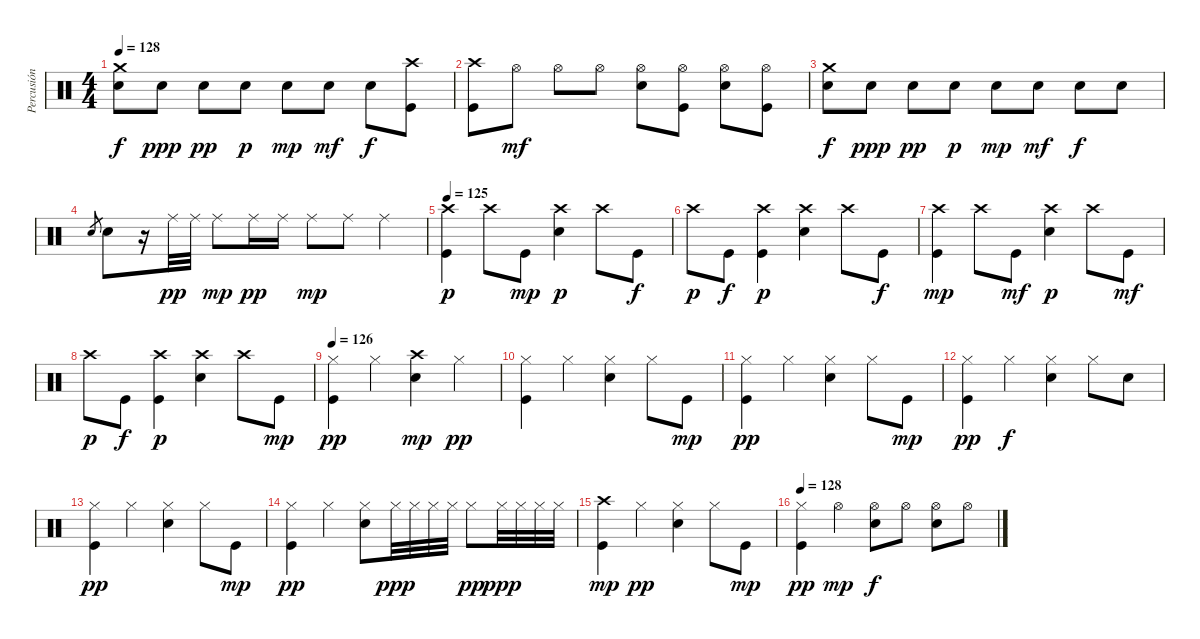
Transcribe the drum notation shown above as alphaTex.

\track ("Percusión" "Percusión") {instrument percussion}
\staff {score}
\articulation defaults
\ts (4 4)
\tempo 128
\clef neutral
\ks c
("Snare (hit) 2" "Crash medium (hit)").8{dy f} "Snare (hit) 2".8{dy ppp} "Snare (hit) 2".8{dy pp} "Snare (hit) 2".8{dy p} "Snare (hit) 2".8{dy mp} "Snare (hit) 2".8{dy mf} "Snare (hit) 2".8{dy f} ("Kick (hit)" "Crash high (hit)").8 |
("Kick (hit)" "Crash high (hit)").8 "Hi-Hat (open)".8{dy mf} "Hi-Hat (open)".8 "Hi-Hat (open)".8 ("Snare (hit) 2" "Hi-Hat (open)").8 ("Kick (hit)" "Hi-Hat (open)").8 ("Snare (hit) 2" "Hi-Hat (open)").8 ("Kick (hit)" "Hi-Hat (open)").8 |
("Snare (hit) 2" "Crash medium (hit)").8{dy f} "Snare (hit) 2".8{dy ppp} "Snare (hit) 2".8{dy pp} "Snare (hit) 2".8{dy p} "Snare (hit) 2".8{dy mp} "Snare (hit) 2".8{dy mf} "Snare (hit) 2".8{dy f} "Snare (hit) 2".8 |
"Snare (hit) 2".8{gr} "Snare (hit) 2".8 r.16 "Ride (middle)".32{dy pp} "Ride (middle)".32 "Ride (middle)".8{dy mp} "Ride (middle)".16{dy pp} "Ride (middle)".16 "Ride (middle)".8{dy mp} "Ride (middle)".8 "Ride (middle)".4 |
\tempo 125
("Kick (hit)" "Crash high (hit)").4{dy p} "Crash high (hit)".8 "Kick (hit)".8{dy mp} ("Snare (hit) 2" "Crash high (hit)").4{dy p} "Crash high (hit)".8 "Kick (hit)".8{dy f} |
"Crash high (hit)".8{dy p} "Kick (hit)".8{dy f} ("Kick (hit)" "Crash high (hit)").4{dy p} ("Snare (hit) 2" "Crash high (hit)").4 "Crash high (hit)".8 "Kick (hit)".8{dy f} |
("Kick (hit)" "Crash high (hit)").4{dy mp} "Crash high (hit)".8 "Kick (hit)".8{dy mf} ("Snare (hit) 2" "Crash high (hit)").4{dy p} "Crash high (hit)".8 "Kick (hit)".8{dy mf} |
"Crash high (hit)".8{dy p} "Kick (hit)".8{dy f} ("Kick (hit)" "Crash high (hit)").4{dy p} ("Snare (hit) 2" "Crash high (hit)").4 "Crash high (hit)".8 "Kick (hit)".8{dy mp} |
\tempo 126
("Kick (hit)" "Hi-Hat (closed)").4{dy pp} "Hi-Hat (closed)".4 ("Snare (hit) 2" "Crash high (hit)").4{dy mp} "Hi-Hat (closed)".4{dy pp} |
("Kick (hit)" "Hi-Hat (closed)").4 "Hi-Hat (closed)".4 ("Snare (hit) 2" "Hi-Hat (closed)").4 "Hi-Hat (closed)".8 "Kick (hit)".8{dy mp} |
("Kick (hit)" "Hi-Hat (closed)").4{dy pp} "Hi-Hat (closed)".4 ("Snare (hit) 2" "Hi-Hat (closed)").4 "Hi-Hat (closed)".8 "Kick (hit)".8{dy mp} |
("Kick (hit)" "Hi-Hat (closed)").4{dy pp} "Hi-Hat (closed)".4{dy f} ("Snare (hit) 2" "Hi-Hat (closed)").4 "Hi-Hat (closed)".8 "Snare (hit) 2".8 |
("Kick (hit)" "Hi-Hat (closed)").4{dy pp} "Hi-Hat (closed)".4 ("Snare (hit) 2" "Hi-Hat (closed)").4 "Hi-Hat (closed)".8 "Kick (hit)".8{dy mp} |
("Kick (hit)" "Hi-Hat (closed)").4{dy pp} "Hi-Hat (closed)".4 ("Snare (hit) 2" "Hi-Hat (closed)").8 "Hi-Hat (closed)".32{dy ppp} "Hi-Hat (closed)".32 "Hi-Hat (closed)".32 "Hi-Hat (closed)".32 "Hi-Hat (closed)".8{dy pp} "Hi-Hat (closed)".32{dy ppp} "Hi-Hat (closed)".32 "Hi-Hat (closed)".32 "Hi-Hat (closed)".32 |
("Kick (hit)" "Crash high (hit)").4{dy mp} "Hi-Hat (closed)".4{dy pp} ("Snare (hit) 2" "Hi-Hat (closed)").4 "Hi-Hat (closed)".8 "Kick (hit)".8{dy mp} |
\tempo 128
("Kick (hit)" "Hi-Hat (closed)").4{dy pp} "Hi-Hat (open)".4{dy mp} ("Snare (hit) 2" "Hi-Hat (open)").8{dy f} "Hi-Hat (open)".8 ("Snare (hit) 2" "Hi-Hat (open)").8 "Hi-Hat (open)".8
